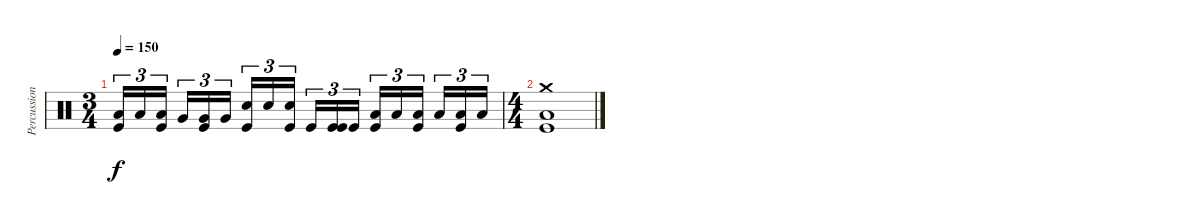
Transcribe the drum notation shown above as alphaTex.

\track ("Percussions" "Percussion") {instrument percussion}
\staff {score}
\articulation defaults
\ts (3 4)
\tempo 150
\clef neutral
\ks c
("Low Tom (hit)" "Kick (hit)").16{tu (3 2) dy f} "Low Tom (hit)".16{tu (3 2)} ("Low Tom (hit)" "Kick (hit)").16{tu (3 2)} "Very Low Tom (hit)".16{tu (3 2)} ("Very Low Tom (hit)" "Kick (hit)").16{tu (3 2)} "Very Low Tom (hit)".16{tu (3 2)} ("Snare (hit) 2" "Kick (hit)").16{tu (3 2)} "Snare (hit) 2".16{tu (3 2)} ("Snare (hit) 2" "Kick (hit)").16{tu (3 2)} "Kick (hit)".16{tu (3 2)} ("Kick (hit)" "Kick (hit)").16{tu (3 2)} "Kick (hit)".16{tu (3 2)} ("Low Floor Tom (hit)" "Kick (hit)").16{tu (3 2)} "Low Floor Tom (hit)".16{tu (3 2)} ("Low Floor Tom (hit)" "Kick (hit)").16{tu (3 2)} "Low Floor Tom (hit)".16{tu (3 2)} ("Low Floor Tom (hit)" "Kick (hit)").16{tu (3 2)} "Low Floor Tom (hit)".16{tu (3 2)} |
\ts (4 4)
("Crash medium (hit)" "Low Floor Tom (hit)" "Kick (hit)").1
